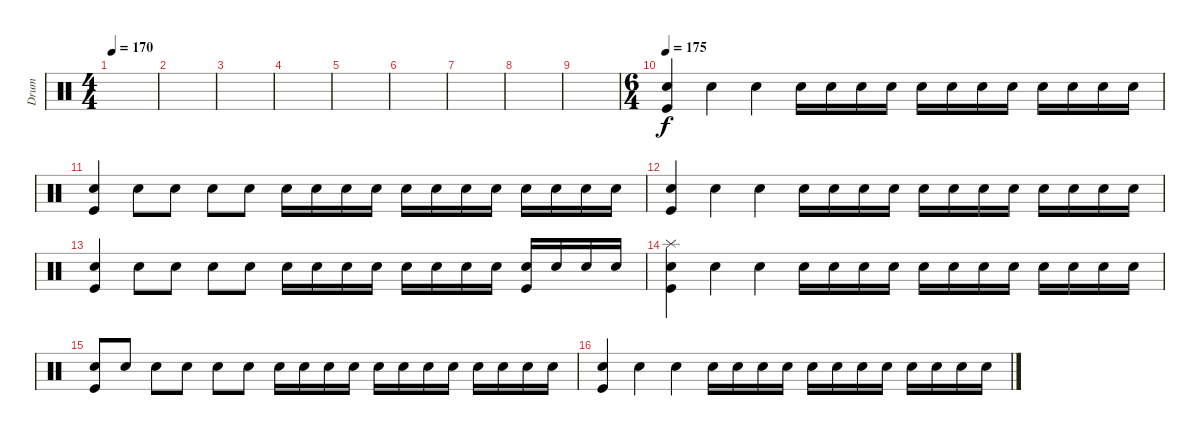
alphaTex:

\track ("Drum" "Drum") {instrument percussion}
\staff {score}
\articulation defaults
\ts (4 4)
\tempo 170
\clef neutral
\ks c
|
|
|
|
|
|
|
|
|
\ts (6 4)
\tempo 175
("Snare (hit) 2" "Kick (hit)").4{volume 10} "Snare (hit) 2".4 "Snare (hit) 2".4 "Snare (hit) 2".16 "Snare (hit) 2".16 "Snare (hit) 2".16 "Snare (hit) 2".16 "Snare (hit) 2".16 "Snare (hit) 2".16 "Snare (hit) 2".16 "Snare (hit) 2".16 "Snare (hit) 2".16 "Snare (hit) 2".16 "Snare (hit) 2".16 "Snare (hit) 2".16 |
("Snare (hit) 2" "Kick (hit)").4 "Snare (hit) 2".8 "Snare (hit) 2".8 "Snare (hit) 2".8 "Snare (hit) 2".8 "Snare (hit) 2".16 "Snare (hit) 2".16 "Snare (hit) 2".16 "Snare (hit) 2".16 "Snare (hit) 2".16 "Snare (hit) 2".16 "Snare (hit) 2".16 "Snare (hit) 2".16 "Snare (hit) 2".16 "Snare (hit) 2".16 "Snare (hit) 2".16 "Snare (hit) 2".16 |
("Snare (hit) 2" "Kick (hit)").4 "Snare (hit) 2".4 "Snare (hit) 2".4 "Snare (hit) 2".16 "Snare (hit) 2".16 "Snare (hit) 2".16 "Snare (hit) 2".16 "Snare (hit) 2".16 "Snare (hit) 2".16 "Snare (hit) 2".16 "Snare (hit) 2".16 "Snare (hit) 2".16 "Snare (hit) 2".16 "Snare (hit) 2".16 "Snare (hit) 2".16 |
("Snare (hit) 2" "Kick (hit)").4 "Snare (hit) 2".8 "Snare (hit) 2".8 "Snare (hit) 2".8 "Snare (hit) 2".8 "Snare (hit) 2".16 "Snare (hit) 2".16 "Snare (hit) 2".16 "Snare (hit) 2".16 "Snare (hit) 2".16 "Snare (hit) 2".16 "Snare (hit) 2".16 "Snare (hit) 2".16 ("Snare (hit) 2" "Kick (hit)").16 "Snare (hit) 2".16 "Snare (hit) 2".16 "Snare (hit) 2".16 |
("Splash (hit)" "Snare (hit) 2" "Kick (hit)").4 "Snare (hit) 2".4 "Snare (hit) 2".4 "Snare (hit) 2".16 "Snare (hit) 2".16 "Snare (hit) 2".16 "Snare (hit) 2".16 "Snare (hit) 2".16 "Snare (hit) 2".16 "Snare (hit) 2".16 "Snare (hit) 2".16 "Snare (hit) 2".16 "Snare (hit) 2".16 "Snare (hit) 2".16 "Snare (hit) 2".16 |
("Snare (hit) 2" "Kick (hit)").8 "Snare (hit) 2".8 "Snare (hit) 2".8 "Snare (hit) 2".8 "Snare (hit) 2".8 "Snare (hit) 2".8 "Snare (hit) 2".16 "Snare (hit) 2".16 "Snare (hit) 2".16 "Snare (hit) 2".16 "Snare (hit) 2".16 "Snare (hit) 2".16 "Snare (hit) 2".16 "Snare (hit) 2".16 "Snare (hit) 2".16 "Snare (hit) 2".16 "Snare (hit) 2".16 "Snare (hit) 2".16 |
("Snare (hit) 2" "Kick (hit)").4 "Snare (hit) 2".4 "Snare (hit) 2".4 "Snare (hit) 2".16 "Snare (hit) 2".16 "Snare (hit) 2".16 "Snare (hit) 2".16 "Snare (hit) 2".16 "Snare (hit) 2".16 "Snare (hit) 2".16 "Snare (hit) 2".16 "Snare (hit) 2".16 "Snare (hit) 2".16 "Snare (hit) 2".16 "Snare (hit) 2".16
